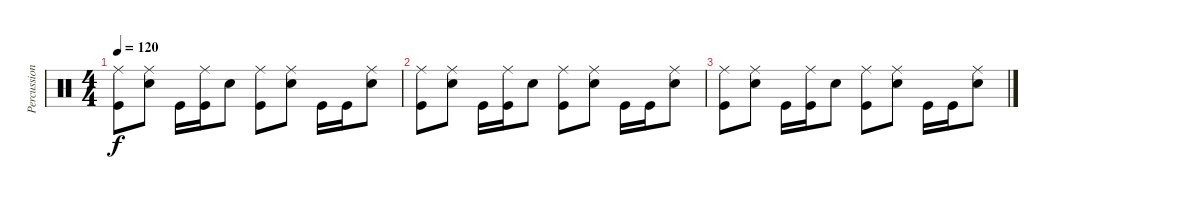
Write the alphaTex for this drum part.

\track ("Percussions" "Percussion") {instrument percussion}
\staff {score}
\articulation defaults
\ts (4 4)
\tempo 120
\clef neutral
\ks c
("Ride (middle)" "Kick (hit)").8{dy f} ("Ride (middle)" "Electric Snare (hit)").8 "Kick (hit)".16 ("Ride (middle)" "Kick (hit)").16 "Electric Snare (hit)".8 ("Ride (middle)" "Kick (hit)").8 ("Ride (middle)" "Electric Snare (hit)").8 "Kick (hit)".16 "Kick (hit)".16 ("Ride (middle)" "Electric Snare (hit)").8 |
("Ride (middle)" "Kick (hit)").8 ("Ride (middle)" "Electric Snare (hit)").8 "Kick (hit)".16 ("Ride (middle)" "Kick (hit)").16 "Electric Snare (hit)".8 ("Ride (middle)" "Kick (hit)").8 ("Ride (middle)" "Electric Snare (hit)").8 "Kick (hit)".16 "Kick (hit)".16 ("Ride (middle)" "Electric Snare (hit)").8 |
("Ride (middle)" "Kick (hit)").8 ("Ride (middle)" "Electric Snare (hit)").8 "Kick (hit)".16 ("Ride (middle)" "Kick (hit)").16 "Electric Snare (hit)".8 ("Ride (middle)" "Kick (hit)").8 ("Ride (middle)" "Electric Snare (hit)").8 "Kick (hit)".16 "Kick (hit)".16 ("Ride (middle)" "Electric Snare (hit)").8
